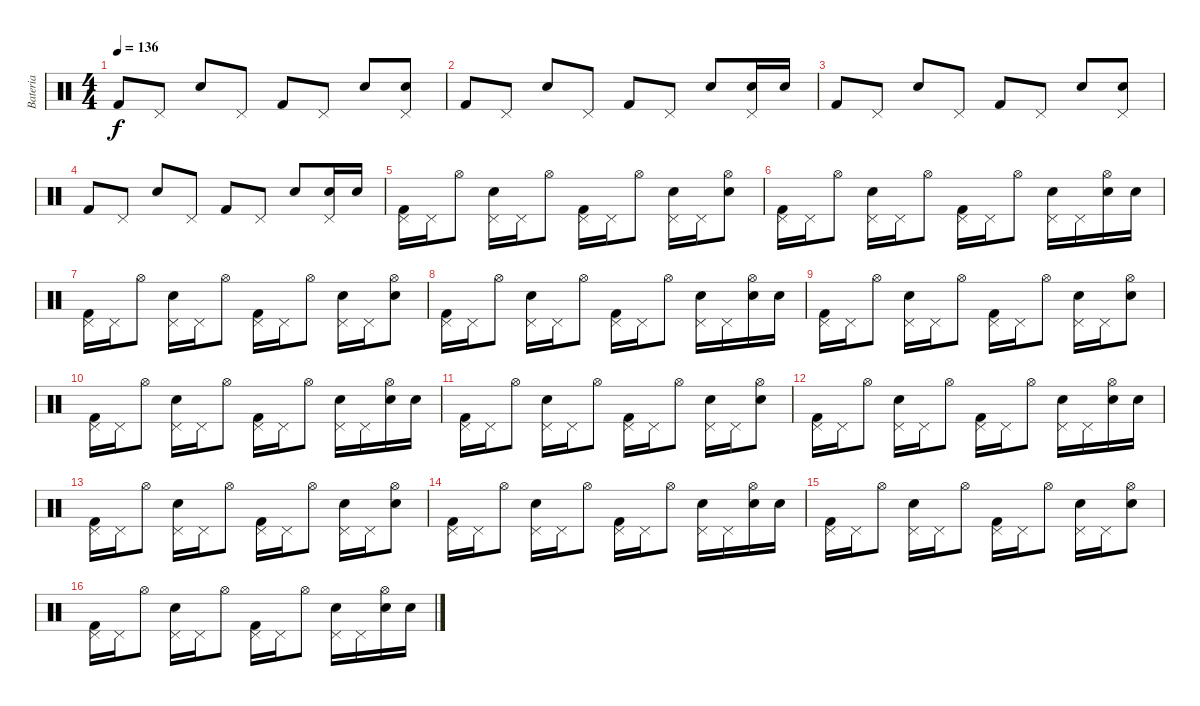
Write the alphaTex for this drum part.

\track ("Bateria" "Bateria") {instrument percussion}
\staff {score}
\articulation defaults
\ts (4 4)
\tempo 136
\clef neutral
\ks c "Kick (hit) 2".8{dy f} "Pedal Hi-Hat (hit)".8 "Electric Snare (hit)".8 "Pedal Hi-Hat (hit)".8 "Kick (hit) 2".8 "Pedal Hi-Hat (hit)".8 "Electric Snare (hit)".8
("Pedal Hi-Hat (hit)" "Electric Snare (hit)").8 |
"Kick (hit) 2".8 "Pedal Hi-Hat (hit)".8 "Electric Snare (hit)".8 "Pedal Hi-Hat (hit)".8 "Kick (hit) 2".8 "Pedal Hi-Hat (hit)".8 "Electric Snare (hit)".8 ("Pedal Hi-Hat (hit)" "Electric Snare (hit)").16 "Electric Snare (hit)".16 |
"Kick (hit) 2".8 "Pedal Hi-Hat (hit)".8 "Electric Snare (hit)".8 "Pedal Hi-Hat (hit)".8 "Kick (hit) 2".8 "Pedal Hi-Hat (hit)".8 "Electric Snare (hit)".8 ("Pedal Hi-Hat (hit)" "Electric Snare (hit)").8 |
"Kick (hit) 2".8 "Pedal Hi-Hat (hit)".8 "Electric Snare (hit)".8 "Pedal Hi-Hat (hit)".8 "Kick (hit) 2".8 "Pedal Hi-Hat (hit)".8 "Electric Snare (hit)".8 ("Pedal Hi-Hat (hit)" "Electric Snare (hit)").16 "Electric Snare (hit)".16 |
("Pedal Hi-Hat (hit)" "Kick (hit) 2").16 "Pedal Hi-Hat (hit)".16 "Hi-Hat (open)".8 ("Pedal Hi-Hat (hit)" "Electric Snare (hit)").16 "Pedal Hi-Hat (hit)".16 "Hi-Hat (open)".8 ("Pedal Hi-Hat (hit)" "Kick (hit) 2").16 "Pedal Hi-Hat (hit)".16 "Hi-Hat (open)".8 ("Pedal Hi-Hat (hit)" "Electric Snare (hit)").16 "Pedal Hi-Hat (hit)".16 ("Hi-Hat (open)" "Electric Snare (hit)").8 |
("Pedal Hi-Hat (hit)" "Kick (hit) 2").16 "Pedal Hi-Hat (hit)".16 "Hi-Hat (open)".8 ("Pedal Hi-Hat (hit)" "Electric Snare (hit)").16 "Pedal Hi-Hat (hit)".16 "Hi-Hat (open)".8 ("Pedal Hi-Hat (hit)" "Kick (hit) 2").16 "Pedal Hi-Hat (hit)".16 "Hi-Hat (open)".8 ("Pedal Hi-Hat (hit)" "Electric Snare (hit)").16 "Pedal Hi-Hat (hit)".16 ("Hi-Hat (open)" "Electric Snare (hit)").16 "Electric Snare (hit)".16 |
("Pedal Hi-Hat (hit)" "Kick (hit) 2").16 "Pedal Hi-Hat (hit)".16 "Hi-Hat (open)".8 ("Pedal Hi-Hat (hit)" "Electric Snare (hit)").16 "Pedal Hi-Hat (hit)".16 "Hi-Hat (open)".8 ("Pedal Hi-Hat (hit)" "Kick (hit) 2").16 "Pedal Hi-Hat (hit)".16 "Hi-Hat (open)".8 ("Pedal Hi-Hat (hit)" "Electric Snare (hit)").16 "Pedal Hi-Hat (hit)".16 ("Hi-Hat (open)" "Electric Snare (hit)").8 |
("Pedal Hi-Hat (hit)" "Kick (hit) 2").16 "Pedal Hi-Hat (hit)".16 "Hi-Hat (open)".8 ("Pedal Hi-Hat (hit)" "Electric Snare (hit)").16 "Pedal Hi-Hat (hit)".16 "Hi-Hat (open)".8 ("Pedal Hi-Hat (hit)" "Kick (hit) 2").16 "Pedal Hi-Hat (hit)".16 "Hi-Hat (open)".8 ("Pedal Hi-Hat (hit)" "Electric Snare (hit)").16 "Pedal Hi-Hat (hit)".16 ("Hi-Hat (open)" "Electric Snare (hit)").16 "Electric Snare (hit)".16 |
("Pedal Hi-Hat (hit)" "Kick (hit) 2").16 "Pedal Hi-Hat (hit)".16 "Hi-Hat (open)".8 ("Pedal Hi-Hat (hit)" "Electric Snare (hit)").16 "Pedal Hi-Hat (hit)".16 "Hi-Hat (open)".8 ("Pedal Hi-Hat (hit)" "Kick (hit) 2").16 "Pedal Hi-Hat (hit)".16 "Hi-Hat (open)".8 ("Pedal Hi-Hat (hit)" "Electric Snare (hit)").16 "Pedal Hi-Hat (hit)".16 ("Hi-Hat (open)" "Electric Snare (hit)").8 |
("Pedal Hi-Hat (hit)" "Kick (hit) 2").16 "Pedal Hi-Hat (hit)".16 "Hi-Hat (open)".8 ("Pedal Hi-Hat (hit)" "Electric Snare (hit)").16 "Pedal Hi-Hat (hit)".16 "Hi-Hat (open)".8 ("Pedal Hi-Hat (hit)" "Kick (hit) 2").16 "Pedal Hi-Hat (hit)".16 "Hi-Hat (open)".8 ("Pedal Hi-Hat (hit)" "Electric Snare (hit)").16 "Pedal Hi-Hat (hit)".16 ("Hi-Hat (open)" "Electric Snare (hit)").16 "Electric Snare (hit)".16 |
("Pedal Hi-Hat (hit)" "Kick (hit) 2").16 "Pedal Hi-Hat (hit)".16 "Hi-Hat (open)".8 ("Pedal Hi-Hat (hit)" "Electric Snare (hit)").16 "Pedal Hi-Hat (hit)".16 "Hi-Hat (open)".8 ("Pedal Hi-Hat (hit)" "Kick (hit) 2").16 "Pedal Hi-Hat (hit)".16 "Hi-Hat (open)".8 ("Pedal Hi-Hat (hit)" "Electric Snare (hit)").16 "Pedal Hi-Hat (hit)".16 ("Hi-Hat (open)" "Electric Snare (hit)").8 |
("Pedal Hi-Hat (hit)" "Kick (hit) 2").16 "Pedal Hi-Hat (hit)".16 "Hi-Hat (open)".8 ("Pedal Hi-Hat (hit)" "Electric Snare (hit)").16 "Pedal Hi-Hat (hit)".16 "Hi-Hat (open)".8 ("Pedal Hi-Hat (hit)" "Kick (hit) 2").16 "Pedal Hi-Hat (hit)".16 "Hi-Hat (open)".8 ("Pedal Hi-Hat (hit)" "Electric Snare (hit)").16 "Pedal Hi-Hat (hit)".16 ("Hi-Hat (open)" "Electric Snare (hit)").16 "Electric Snare (hit)".16 |
("Pedal Hi-Hat (hit)" "Kick (hit) 2").16 "Pedal Hi-Hat (hit)".16 "Hi-Hat (open)".8 ("Pedal Hi-Hat (hit)" "Electric Snare (hit)").16 "Pedal Hi-Hat (hit)".16 "Hi-Hat (open)".8 ("Pedal Hi-Hat (hit)" "Kick (hit) 2").16 "Pedal Hi-Hat (hit)".16 "Hi-Hat (open)".8 ("Pedal Hi-Hat (hit)" "Electric Snare (hit)").16 "Pedal Hi-Hat (hit)".16 ("Hi-Hat (open)" "Electric Snare (hit)").8 |
("Pedal Hi-Hat (hit)" "Kick (hit) 2").16 "Pedal Hi-Hat (hit)".16 "Hi-Hat (open)".8 ("Pedal Hi-Hat (hit)" "Electric Snare (hit)").16 "Pedal Hi-Hat (hit)".16 "Hi-Hat (open)".8 ("Pedal Hi-Hat (hit)" "Kick (hit) 2").16 "Pedal Hi-Hat (hit)".16 "Hi-Hat (open)".8 ("Pedal Hi-Hat (hit)" "Electric Snare (hit)").16 "Pedal Hi-Hat (hit)".16 ("Hi-Hat (open)" "Electric Snare (hit)").16 "Electric Snare (hit)".16 |
("Pedal Hi-Hat (hit)" "Kick (hit) 2").16 "Pedal Hi-Hat (hit)".16 "Hi-Hat (open)".8 ("Pedal Hi-Hat (hit)" "Electric Snare (hit)").16 "Pedal Hi-Hat (hit)".16 "Hi-Hat (open)".8 ("Pedal Hi-Hat (hit)" "Kick (hit) 2").16 "Pedal Hi-Hat (hit)".16 "Hi-Hat (open)".8 ("Pedal Hi-Hat (hit)" "Electric Snare (hit)").16 "Pedal Hi-Hat (hit)".16 ("Hi-Hat (open)" "Electric Snare (hit)").8 |
("Pedal Hi-Hat (hit)" "Kick (hit) 2").16 "Pedal Hi-Hat (hit)".16 "Hi-Hat (open)".8 ("Pedal Hi-Hat (hit)" "Electric Snare (hit)").16 "Pedal Hi-Hat (hit)".16 "Hi-Hat (open)".8 ("Pedal Hi-Hat (hit)" "Kick (hit) 2").16 "Pedal Hi-Hat (hit)".16 "Hi-Hat (open)".8 ("Pedal Hi-Hat (hit)" "Electric Snare (hit)").16 "Pedal Hi-Hat (hit)".16 ("Hi-Hat (open)" "Electric Snare (hit)").16 "Electric Snare (hit)".16
